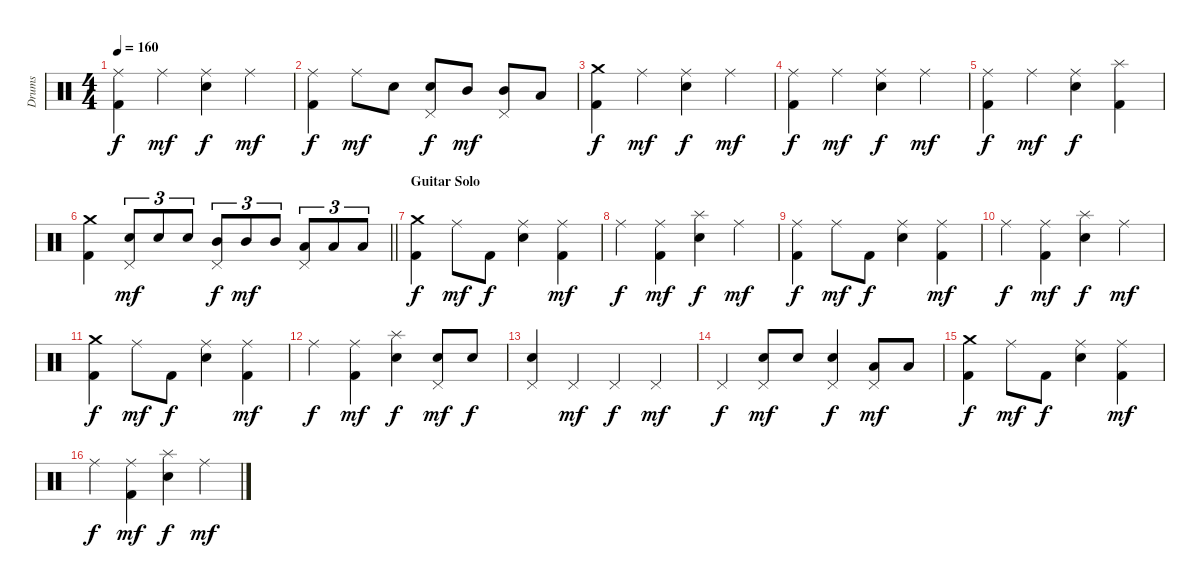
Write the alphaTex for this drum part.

\track ("Drums" "Drums") {instrument percussion}
\staff {score}
\articulation defaults
\ts (4 4)
\tempo 160
\clef neutral
\ks c
("Ride (middle)" "Kick (hit) 2").4{dy f} "Ride (middle)".4{dy mf} ("Ride (middle)" "Snare (hit) 2").4{dy f} "Ride (middle)".4{dy mf} |
("Ride (middle)" "Kick (hit) 2").4{dy f} "Ride (middle)".8{dy mf} "Snare (hit) 2".8 ("Pedal Hi-Hat (hit)" "Snare (hit) 2").8{dy f} "Mid Tom (hit)".8{dy mf} ("Pedal Hi-Hat (hit)" "Mid Tom (hit)").8 "Low Tom (hit)".8 |
("Crash medium (hit)" "Kick (hit) 2").4{dy f} "Ride (middle)".4{dy mf} ("Ride (middle)" "Snare (hit) 2").4{dy f} "Ride (middle)".4{dy mf} |
("Ride (middle)" "Kick (hit) 2").4{dy f} "Ride (middle)".4{dy mf} ("Ride (middle)" "Snare (hit) 2").4{dy f} "Ride (middle)".4{dy mf} |
("Ride (middle)" "Kick (hit) 2").4{dy f} "Ride (middle)".4{dy mf} ("Ride (middle)" "Snare (hit) 2").4{dy f} ("Splash (hit)" "Kick (hit) 2").4 |
\barLineRight lightlight
("Crash medium (hit)" "Kick (hit) 2").4 ("Pedal Hi-Hat (hit)" "Snare (hit) 2").8{tu (3 2) dy mf} "Snare (hit) 2".8{tu (3 2)} "Snare (hit) 2".8{tu (3 2)} ("Pedal Hi-Hat (hit)" "Mid Tom (hit)").8{tu (3 2) dy f} "Mid Tom (hit)".8{tu (3 2) dy mf} "Mid Tom (hit)".8{tu (3 2)} ("Pedal Hi-Hat (hit)" "Low Tom (hit)").8{tu (3 2)} "Low Tom (hit)".8{tu (3 2)} "Low Tom (hit)".8{tu (3 2)} |
\section ("" "Guitar Solo")
("Crash medium (hit)" "Kick (hit) 2").4{dy f} "Ride (middle)".8{dy mf} "Kick (hit) 2".8{dy f} ("Ride (middle)" "Snare (hit) 2").4 ("Ride (middle)" "Kick (hit) 2").4{dy mf} |
"Ride (middle)".4{dy f} ("Ride (middle)" "Kick (hit) 2").4{dy mf} ("Splash (hit)" "Snare (hit) 2").4{dy f} "Ride (middle)".4{dy mf} |
("Ride (middle)" "Kick (hit) 2").4{dy f} "Ride (middle)".8{dy mf} "Kick (hit) 2".8{dy f} ("Ride (middle)" "Snare (hit) 2").4 ("Ride (middle)" "Kick (hit) 2").4{dy mf} |
"Ride (middle)".4{dy f} ("Ride (middle)" "Kick (hit) 2").4{dy mf} ("Splash (hit)" "Snare (hit) 2").4{dy f} "Ride (middle)".4{dy mf} |
("Crash medium (hit)" "Kick (hit) 2").4{dy f} "Ride (middle)".8{dy mf} "Kick (hit) 2".8{dy f} ("Ride (middle)" "Snare (hit) 2").4 ("Ride (middle)" "Kick (hit) 2").4{dy mf} |
"Ride (middle)".4{dy f} ("Ride (middle)" "Kick (hit) 2").4{dy mf} ("Splash (hit)" "Snare (hit) 2").4{dy f} ("Pedal Hi-Hat (hit)" "Snare (hit) 2").8{dy mf} "Snare (hit) 2".8{dy f} |
("Pedal Hi-Hat (hit)" "Snare (hit) 2").4 "Pedal Hi-Hat (hit)".4{dy mf} "Pedal Hi-Hat (hit)".4{dy f} "Pedal Hi-Hat (hit)".4{dy mf} |
"Pedal Hi-Hat (hit)".4{dy f} ("Pedal Hi-Hat (hit)" "Snare (hit) 2").8{dy mf} "Snare (hit) 2".8 ("Pedal Hi-Hat (hit)" "Snare (hit) 2").4{dy f} ("Pedal Hi-Hat (hit)" "Low Tom (hit)").8{dy mf} "Low Tom (hit)".8 |
("Crash medium (hit)" "Kick (hit) 2").4{dy f} "Ride (middle)".8{dy mf} "Kick (hit) 2".8{dy f} ("Ride (middle)" "Snare (hit) 2").4 ("Ride (middle)" "Kick (hit) 2").4{dy mf} |
"Ride (middle)".4{dy f} ("Ride (middle)" "Kick (hit) 2").4{dy mf} ("Splash (hit)" "Snare (hit) 2").4{dy f} "Ride (middle)".4{dy mf}
